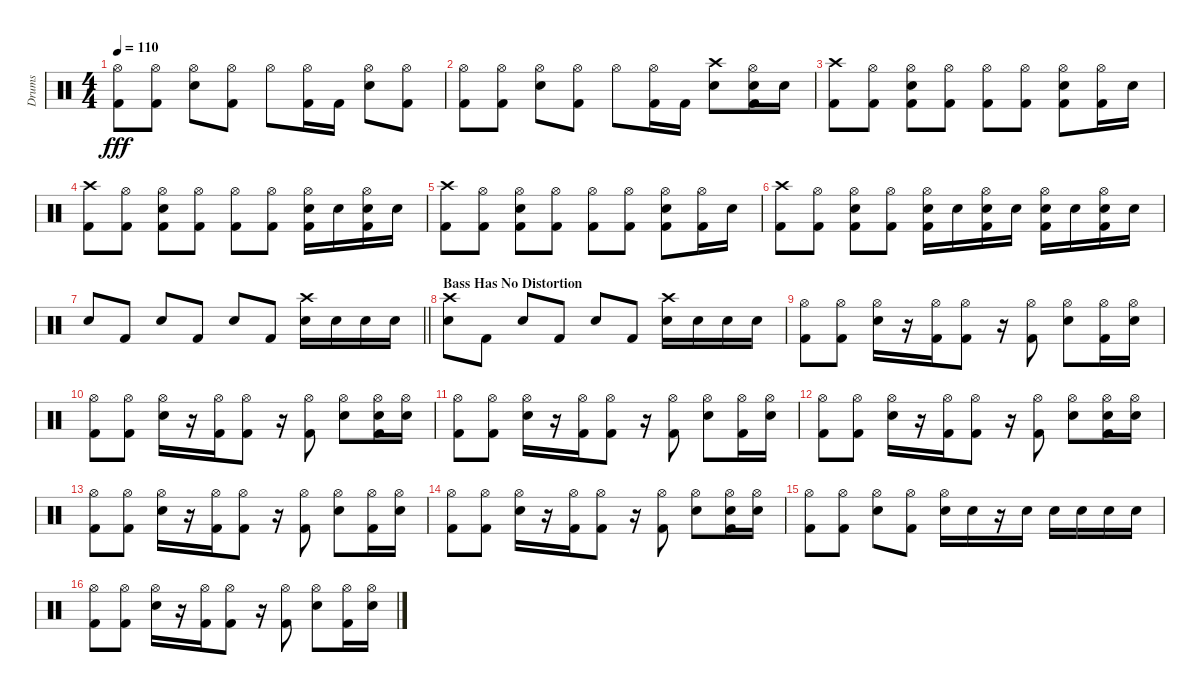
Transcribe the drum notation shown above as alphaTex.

\track ("Drums" "Drums") {instrument percussion}
\staff {score}
\articulation defaults
\ts (4 4)
\tempo 110
\clef neutral
\ks c
("Hi-Hat (open)" "Kick (hit) 2").8{dy fff} ("Hi-Hat (open)" "Kick (hit) 2").8 ("Hi-Hat (open)" "Snare (hit) 2").8 ("Hi-Hat (open)" "Kick (hit) 2").8 "Hi-Hat (open)".8 ("Hi-Hat (open)" "Kick (hit) 2").16 "Kick (hit) 2".16 ("Hi-Hat (open)" "Snare (hit) 2").8 ("Hi-Hat (open)" "Kick (hit) 2").8 |
("Hi-Hat (open)" "Kick (hit) 2").8 ("Hi-Hat (open)" "Kick (hit) 2").8 ("Hi-Hat (open)" "Snare (hit) 2").8 ("Hi-Hat (open)" "Kick (hit) 2").8 "Hi-Hat (open)".8 ("Hi-Hat (open)" "Kick (hit) 2").16 "Kick (hit) 2".16 ("Crash high (hit)" "Snare (hit) 2").8 ("Hi-Hat (open)" "Snare (hit) 2" "Kick (hit) 2").16 "Snare (hit) 2".16 |
("Crash high (hit)" "Kick (hit) 2").8 ("Hi-Hat (open)" "Kick (hit) 2").8 ("Hi-Hat (open)" "Snare (hit) 2" "Kick (hit) 2").8 ("Hi-Hat (open)" "Kick (hit) 2").8 ("Hi-Hat (open)" "Kick (hit) 2").8 ("Hi-Hat (open)" "Kick (hit) 2").8 ("Hi-Hat (open)" "Snare (hit) 2" "Kick (hit) 2").8 ("Hi-Hat (open)" "Kick (hit) 2").16 "Snare (hit) 2".16 |
("Crash high (hit)" "Kick (hit) 2").8 ("Hi-Hat (open)" "Kick (hit) 2").8 ("Hi-Hat (open)" "Snare (hit) 2" "Kick (hit) 2").8 ("Hi-Hat (open)" "Kick (hit) 2").8 ("Hi-Hat (open)" "Kick (hit) 2").8 ("Hi-Hat (open)" "Kick (hit) 2").8 ("Hi-Hat (open)" "Snare (hit) 2" "Kick (hit) 2").16 "Snare (hit) 2".16 ("Hi-Hat (open)" "Snare (hit) 2" "Kick (hit) 2").16 "Snare (hit) 2".16 |
("Crash high (hit)" "Kick (hit) 2").8 ("Hi-Hat (open)" "Kick (hit) 2").8 ("Hi-Hat (open)" "Snare (hit) 2" "Kick (hit) 2").8 ("Hi-Hat (open)" "Kick (hit) 2").8 ("Hi-Hat (open)" "Kick (hit) 2").8 ("Hi-Hat (open)" "Kick (hit) 2").8 ("Hi-Hat (open)" "Snare (hit) 2" "Kick (hit) 2").8 ("Hi-Hat (open)" "Kick (hit) 2").16 "Snare (hit) 2".16 |
("Crash high (hit)" "Kick (hit) 2").8 ("Hi-Hat (open)" "Kick (hit) 2").8 ("Hi-Hat (open)" "Snare (hit) 2" "Kick (hit) 2").8 ("Hi-Hat (open)" "Kick (hit) 2").8 ("Hi-Hat (open)" "Snare (hit) 2" "Kick (hit) 2").16 "Snare (hit) 2".16 ("Hi-Hat (open)" "Snare (hit) 2" "Kick (hit) 2").16 "Snare (hit) 2".16 ("Hi-Hat (open)" "Snare (hit) 2" "Kick (hit) 2").16 "Snare (hit) 2".16 ("Hi-Hat (open)" "Snare (hit) 2" "Kick (hit) 2").16 "Snare (hit) 2".16 |
\barLineRight lightlight "Snare (hit) 2".8 "Kick (hit) 2".8 "Snare (hit) 2".8 "Kick (hit) 2".8 "Snare (hit) 2".8 "Kick (hit) 2".8
("Crash high (hit)" "Snare (hit) 2").16 "Snare (hit) 2".16 "Snare (hit) 2".16 "Snare (hit) 2".16 |
\section ("" "Bass Has No Distortion")
("Crash high (hit)" "Snare (hit) 2").8 "Kick (hit) 2".8 "Snare (hit) 2".8 "Kick (hit) 2".8 "Snare (hit) 2".8 "Kick (hit) 2".8 ("Crash high (hit)" "Snare (hit) 2").16 "Snare (hit) 2".16 "Snare (hit) 2".16 "Snare (hit) 2".16 |
("Hi-Hat (open)" "Kick (hit) 2").8 ("Hi-Hat (open)" "Kick (hit) 2").8 ("Hi-Hat (open)" "Snare (hit) 2").16 r.16 ("Hi-Hat (open)" "Kick (hit) 2").16 ("Hi-Hat (open)" "Kick (hit) 2").8 r.16 ("Hi-Hat (open)" "Kick (hit) 2").8 ("Hi-Hat (open)" "Snare (hit) 2").8 ("Hi-Hat (open)" "Kick (hit) 2").16 ("Hi-Hat (open)" "Snare (hit) 2").16 |
("Hi-Hat (open)" "Kick (hit) 2").8 ("Hi-Hat (open)" "Kick (hit) 2").8 ("Hi-Hat (open)" "Snare (hit) 2").16 r.16 ("Hi-Hat (open)" "Kick (hit) 2").16 ("Hi-Hat (open)" "Kick (hit) 2").8 r.16 ("Hi-Hat (open)" "Kick (hit) 2").8 ("Hi-Hat (open)" "Snare (hit) 2").8 ("Hi-Hat (open)" "Snare (hit) 2" "Kick (hit) 2").16 ("Hi-Hat (open)" "Snare (hit) 2").16 |
("Hi-Hat (open)" "Kick (hit) 2").8 ("Hi-Hat (open)" "Kick (hit) 2").8 ("Hi-Hat (open)" "Snare (hit) 2").16 r.16 ("Hi-Hat (open)" "Kick (hit) 2").16 ("Hi-Hat (open)" "Kick (hit) 2").8 r.16 ("Hi-Hat (open)" "Kick (hit) 2").8 ("Hi-Hat (open)" "Snare (hit) 2").8 ("Hi-Hat (open)" "Kick (hit) 2").16 ("Hi-Hat (open)" "Snare (hit) 2").16 |
("Hi-Hat (open)" "Kick (hit) 2").8 ("Hi-Hat (open)" "Kick (hit) 2").8 ("Hi-Hat (open)" "Snare (hit) 2").16 r.16 ("Hi-Hat (open)" "Kick (hit) 2").16 ("Hi-Hat (open)" "Kick (hit) 2").8 r.16 ("Hi-Hat (open)" "Kick (hit) 2").8 ("Hi-Hat (open)" "Snare (hit) 2").8 ("Hi-Hat (open)" "Snare (hit) 2" "Kick (hit) 2").16 ("Hi-Hat (open)" "Snare (hit) 2").16 |
("Hi-Hat (open)" "Kick (hit) 2").8 ("Hi-Hat (open)" "Kick (hit) 2").8 ("Hi-Hat (open)" "Snare (hit) 2").16 r.16 ("Hi-Hat (open)" "Kick (hit) 2").16 ("Hi-Hat (open)" "Kick (hit) 2").8 r.16 ("Hi-Hat (open)" "Kick (hit) 2").8 ("Hi-Hat (open)" "Snare (hit) 2").8 ("Hi-Hat (open)" "Kick (hit) 2").16 ("Hi-Hat (open)" "Snare (hit) 2").16 |
("Hi-Hat (open)" "Kick (hit) 2").8 ("Hi-Hat (open)" "Kick (hit) 2").8 ("Hi-Hat (open)" "Snare (hit) 2").16 r.16 ("Hi-Hat (open)" "Kick (hit) 2").16 ("Hi-Hat (open)" "Kick (hit) 2").8 r.16 ("Hi-Hat (open)" "Kick (hit) 2").8 ("Hi-Hat (open)" "Snare (hit) 2").8 ("Hi-Hat (open)" "Snare (hit) 2" "Kick (hit) 2").16 ("Hi-Hat (open)" "Snare (hit) 2").16 |
("Hi-Hat (open)" "Kick (hit) 2").8 ("Hi-Hat (open)" "Kick (hit) 2").8 ("Hi-Hat (open)" "Snare (hit) 2").8 ("Hi-Hat (open)" "Kick (hit) 2").8 ("Hi-Hat (open)" "Snare (hit) 2").16 "Snare (hit) 2".16 r.16 "Snare (hit) 2".16 "Snare (hit) 2".16 "Snare (hit) 2".16 "Snare (hit) 2".16 "Snare (hit) 2".16 |
("Hi-Hat (open)" "Kick (hit) 2").8 ("Hi-Hat (open)" "Kick (hit) 2").8 ("Hi-Hat (open)" "Snare (hit) 2").16 r.16 ("Hi-Hat (open)" "Kick (hit) 2").16 ("Hi-Hat (open)" "Kick (hit) 2").8 r.16 ("Hi-Hat (open)" "Kick (hit) 2").8 ("Hi-Hat (open)" "Snare (hit) 2").8 ("Hi-Hat (open)" "Kick (hit) 2").16 ("Hi-Hat (open)" "Snare (hit) 2").16
